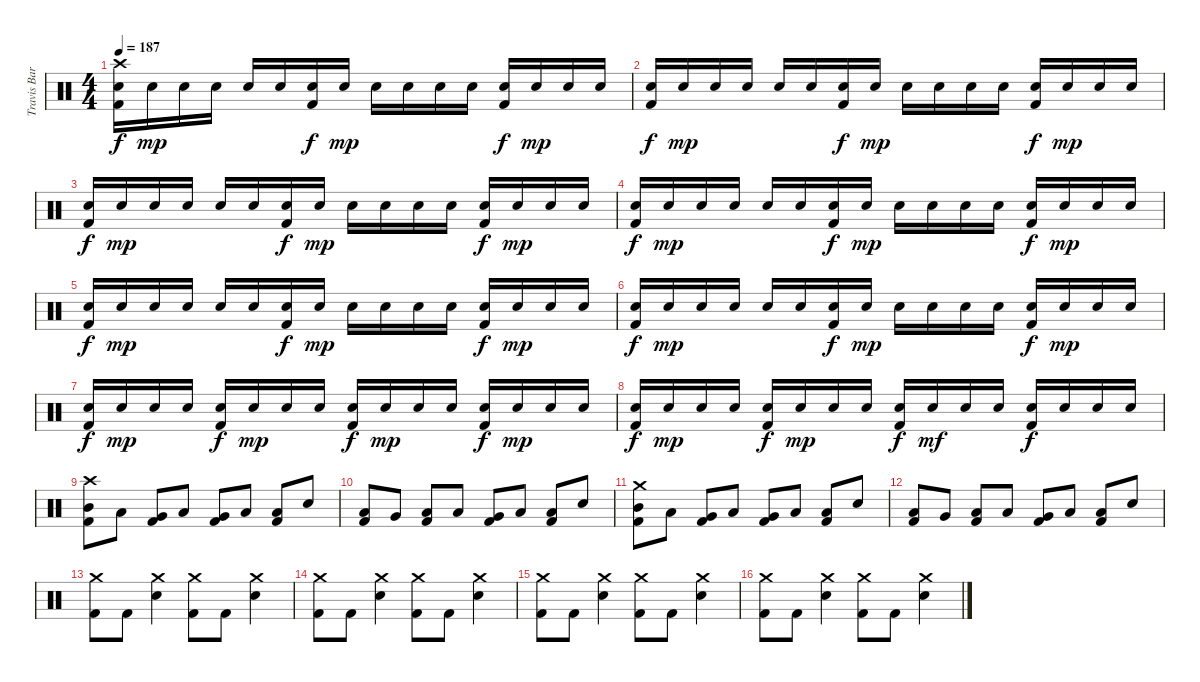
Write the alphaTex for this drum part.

\track ("Travis Barker Drums" "Travis Bar") {instrument percussion}
\staff {score}
\articulation defaults
\ts (4 4)
\tempo 187
\clef neutral
\ks c
("Crash high (hit)" "Electric Snare (hit)" "Kick (hit) 2").16{dy f} "Electric Snare (hit)".16{dy mp} "Electric Snare (hit)".16 "Electric Snare (hit)".16 "Electric Snare (hit)".16 "Electric Snare (hit)".16 ("Electric Snare (hit)" "Kick (hit) 2").16{dy f} "Electric Snare (hit)".16{dy mp} "Electric Snare (hit)".16 "Electric Snare (hit)".16 "Electric Snare (hit)".16 "Electric Snare (hit)".16 ("Electric Snare (hit)" "Kick (hit) 2").16{dy f} "Electric Snare (hit)".16{dy mp} "Electric Snare (hit)".16 "Electric Snare (hit)".16 |
("Electric Snare (hit)" "Kick (hit) 2").16{dy f} "Electric Snare (hit)".16{dy mp} "Electric Snare (hit)".16 "Electric Snare (hit)".16 "Electric Snare (hit)".16 "Electric Snare (hit)".16 ("Electric Snare (hit)" "Kick (hit) 2").16{dy f} "Electric Snare (hit)".16{dy mp} "Electric Snare (hit)".16 "Electric Snare (hit)".16 "Electric Snare (hit)".16 "Electric Snare (hit)".16 ("Electric Snare (hit)" "Kick (hit) 2").16{dy f} "Electric Snare (hit)".16{dy mp} "Electric Snare (hit)".16 "Electric Snare (hit)".16 |
("Electric Snare (hit)" "Kick (hit) 2").16{dy f} "Electric Snare (hit)".16{dy mp} "Electric Snare (hit)".16 "Electric Snare (hit)".16 "Electric Snare (hit)".16 "Electric Snare (hit)".16 ("Electric Snare (hit)" "Kick (hit) 2").16{dy f} "Electric Snare (hit)".16{dy mp} "Electric Snare (hit)".16 "Electric Snare (hit)".16 "Electric Snare (hit)".16 "Electric Snare (hit)".16 ("Electric Snare (hit)" "Kick (hit) 2").16{dy f} "Electric Snare (hit)".16{dy mp} "Electric Snare (hit)".16 "Electric Snare (hit)".16 |
("Electric Snare (hit)" "Kick (hit) 2").16{dy f} "Electric Snare (hit)".16{dy mp} "Electric Snare (hit)".16 "Electric Snare (hit)".16 "Electric Snare (hit)".16 "Electric Snare (hit)".16 ("Electric Snare (hit)" "Kick (hit) 2").16{dy f} "Electric Snare (hit)".16{dy mp} "Electric Snare (hit)".16 "Electric Snare (hit)".16 "Electric Snare (hit)".16 "Electric Snare (hit)".16 ("Electric Snare (hit)" "Kick (hit) 2").16{dy f} "Electric Snare (hit)".16{dy mp} "Electric Snare (hit)".16 "Electric Snare (hit)".16 |
("Electric Snare (hit)" "Kick (hit) 2").16{dy f} "Electric Snare (hit)".16{dy mp} "Electric Snare (hit)".16 "Electric Snare (hit)".16 "Electric Snare (hit)".16 "Electric Snare (hit)".16 ("Electric Snare (hit)" "Kick (hit) 2").16{dy f} "Electric Snare (hit)".16{dy mp} "Electric Snare (hit)".16 "Electric Snare (hit)".16 "Electric Snare (hit)".16 "Electric Snare (hit)".16 ("Electric Snare (hit)" "Kick (hit) 2").16{dy f} "Electric Snare (hit)".16{dy mp} "Electric Snare (hit)".16 "Electric Snare (hit)".16 |
("Electric Snare (hit)" "Kick (hit) 2").16{dy f} "Electric Snare (hit)".16{dy mp} "Electric Snare (hit)".16 "Electric Snare (hit)".16 "Electric Snare (hit)".16 "Electric Snare (hit)".16 ("Electric Snare (hit)" "Kick (hit) 2").16{dy f} "Electric Snare (hit)".16{dy mp} "Electric Snare (hit)".16 "Electric Snare (hit)".16 "Electric Snare (hit)".16 "Electric Snare (hit)".16 ("Electric Snare (hit)" "Kick (hit) 2").16{dy f} "Electric Snare (hit)".16{dy mp} "Electric Snare (hit)".16 "Electric Snare (hit)".16 |
("Electric Snare (hit)" "Kick (hit) 2").16{dy f} "Electric Snare (hit)".16{dy mp} "Electric Snare (hit)".16 "Electric Snare (hit)".16 ("Electric Snare (hit)" "Kick (hit) 2").16{dy f} "Electric Snare (hit)".16{dy mp} "Electric Snare (hit)".16 "Electric Snare (hit)".16 ("Electric Snare (hit)" "Kick (hit) 2").16{dy f} "Electric Snare (hit)".16{dy mp} "Electric Snare (hit)".16 "Electric Snare (hit)".16 ("Electric Snare (hit)" "Kick (hit) 2").16{dy f} "Electric Snare (hit)".16{dy mp} "Electric Snare (hit)".16 "Electric Snare (hit)".16 |
("Electric Snare (hit)" "Kick (hit) 2").16{dy f} "Electric Snare (hit)".16{dy mp} "Electric Snare (hit)".16 "Electric Snare (hit)".16 ("Electric Snare (hit)" "Kick (hit) 2").16{dy f} "Electric Snare (hit)".16{dy mp} "Electric Snare (hit)".16 "Electric Snare (hit)".16 ("Electric Snare (hit)" "Kick (hit) 2").16{dy f} "Electric Snare (hit)".16{dy mf} "Electric Snare (hit)".16 "Electric Snare (hit)".16 ("Electric Snare (hit)" "Kick (hit) 2").16{dy f} "Electric Snare (hit)".16 "Electric Snare (hit)".16 "Electric Snare (hit)".16 |
("Crash high (hit)" "Mid Tom (hit)" "Kick (hit) 2").8 "Low Tom (hit)".8 ("Very Low Tom (hit)" "Kick (hit) 2").8 "Low Floor Tom (hit)".8 ("Very Low Tom (hit)" "Kick (hit) 2").8 "Low Floor Tom (hit)".8 ("Low Floor Tom (hit)" "Kick (hit) 2").8 "Electric Snare (hit)".8 |
("Low Tom (hit)" "Kick (hit) 2").8 "Very Low Tom (hit)".8 ("Low Floor Tom (hit)" "Kick (hit) 2").8 "Low Floor Tom (hit)".8 ("Very Low Tom (hit)" "Kick (hit) 2").8 "Low Floor Tom (hit)".8 ("Low Floor Tom (hit)" "Kick (hit) 2").8 "Electric Snare (hit)".8 |
("Crash medium (hit)" "Mid Tom (hit)" "Kick (hit) 2").8 "Low Tom (hit)".8 ("Very Low Tom (hit)" "Kick (hit) 2").8 "Low Floor Tom (hit)".8 ("Very Low Tom (hit)" "Kick (hit) 2").8 "Low Floor Tom (hit)".8 ("Low Floor Tom (hit)" "Kick (hit) 2").8 "Electric Snare (hit)".8 |
("Low Tom (hit)" "Kick (hit) 2").8 "Very Low Tom (hit)".8 ("Low Floor Tom (hit)" "Kick (hit) 2").8 "Low Floor Tom (hit)".8 ("Very Low Tom (hit)" "Kick (hit) 2").8 "Low Floor Tom (hit)".8 ("Low Floor Tom (hit)" "Kick (hit) 2").8 "Electric Snare (hit)".8 |
("Crash medium (hit)" "Kick (hit) 2").8 "Kick (hit) 2".8 ("Crash medium (hit)" "Electric Snare (hit)").4 ("Crash medium (hit)" "Kick (hit) 2").8 "Kick (hit) 2".8 ("Crash medium (hit)" "Electric Snare (hit)").4 |
("Crash medium (hit)" "Kick (hit) 2").8 "Kick (hit) 2".8 ("Crash medium (hit)" "Electric Snare (hit)").4 ("Crash medium (hit)" "Kick (hit) 2").8 "Kick (hit) 2".8 ("Crash medium (hit)" "Electric Snare (hit)").4 |
("Crash medium (hit)" "Kick (hit) 2").8 "Kick (hit) 2".8 ("Crash medium (hit)" "Electric Snare (hit)").4 ("Crash medium (hit)" "Kick (hit) 2").8 "Kick (hit) 2".8 ("Crash medium (hit)" "Electric Snare (hit)").4 |
("Crash medium (hit)" "Kick (hit) 2").8 "Kick (hit) 2".8 ("Crash medium (hit)" "Electric Snare (hit)").4 ("Crash medium (hit)" "Kick (hit) 2").8 "Kick (hit) 2".8 ("Crash medium (hit)" "Electric Snare (hit)").4
